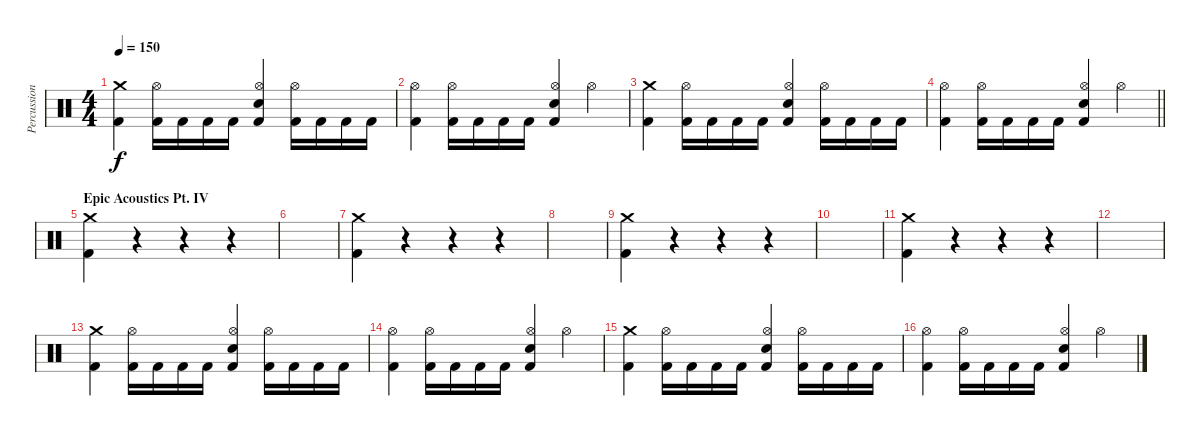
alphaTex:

\track ("Percussion" "Percussion") {instrument percussion}
\staff {score}
\articulation defaults
\ts (4 4)
\tempo 150
\clef neutral
\ks c
("Crash medium (hit)" "Kick (hit) 2").4{dy f} ("Hi-Hat (open)" "Kick (hit) 2").16 "Kick (hit) 2".16 "Kick (hit) 2".16 "Kick (hit) 2".16 ("Hi-Hat (open)" "Electric Snare (hit)" "Kick (hit) 2").4 ("Hi-Hat (open)" "Kick (hit) 2").16 "Kick (hit) 2".16 "Kick (hit) 2".16 "Kick (hit) 2".16 |
("Hi-Hat (open)" "Kick (hit) 2").4 ("Hi-Hat (open)" "Kick (hit) 2").16 "Kick (hit) 2".16 "Kick (hit) 2".16 "Kick (hit) 2".16 ("Hi-Hat (open)" "Electric Snare (hit)" "Kick (hit) 2").4 "Hi-Hat (open)".4 |
("Crash medium (hit)" "Kick (hit) 2").4 ("Hi-Hat (open)" "Kick (hit) 2").16 "Kick (hit) 2".16 "Kick (hit) 2".16 "Kick (hit) 2".16 ("Hi-Hat (open)" "Electric Snare (hit)" "Kick (hit) 2").4 ("Hi-Hat (open)" "Kick (hit) 2").16 "Kick (hit) 2".16 "Kick (hit) 2".16 "Kick (hit) 2".16 |
\barLineRight lightlight
("Hi-Hat (open)" "Kick (hit) 2").4 ("Hi-Hat (open)" "Kick (hit) 2").16 "Kick (hit) 2".16 "Kick (hit) 2".16 "Kick (hit) 2".16 ("Hi-Hat (open)" "Electric Snare (hit)" "Kick (hit) 2").4 "Hi-Hat (open)".4 |
\section ("" "Epic Acoustics Pt. IV")
("Crash medium (hit)" "Kick (hit) 2").4 r.4 r.4 r.4 |
|
("Crash medium (hit)" "Kick (hit) 2").4 r.4 r.4 r.4 |
|
("Crash medium (hit)" "Kick (hit) 2").4 r.4 r.4 r.4 |
|
("Crash medium (hit)" "Kick (hit) 2").4 r.4 r.4 r.4 |
|
("Crash medium (hit)" "Kick (hit) 2").4 ("Hi-Hat (open)" "Kick (hit) 2").16 "Kick (hit) 2".16 "Kick (hit) 2".16 "Kick (hit) 2".16 ("Hi-Hat (open)" "Electric Snare (hit)" "Kick (hit) 2").4 ("Hi-Hat (open)" "Kick (hit) 2").16 "Kick (hit) 2".16 "Kick (hit) 2".16 "Kick (hit) 2".16 |
("Hi-Hat (open)" "Kick (hit) 2").4 ("Hi-Hat (open)" "Kick (hit) 2").16 "Kick (hit) 2".16 "Kick (hit) 2".16 "Kick (hit) 2".16 ("Hi-Hat (open)" "Electric Snare (hit)" "Kick (hit) 2").4 "Hi-Hat (open)".4 |
("Crash medium (hit)" "Kick (hit) 2").4 ("Hi-Hat (open)" "Kick (hit) 2").16 "Kick (hit) 2".16 "Kick (hit) 2".16 "Kick (hit) 2".16 ("Hi-Hat (open)" "Electric Snare (hit)" "Kick (hit) 2").4 ("Hi-Hat (open)" "Kick (hit) 2").16 "Kick (hit) 2".16 "Kick (hit) 2".16 "Kick (hit) 2".16 |
("Hi-Hat (open)" "Kick (hit) 2").4 ("Hi-Hat (open)" "Kick (hit) 2").16 "Kick (hit) 2".16 "Kick (hit) 2".16 "Kick (hit) 2".16 ("Hi-Hat (open)" "Electric Snare (hit)" "Kick (hit) 2").4 "Hi-Hat (open)".4
